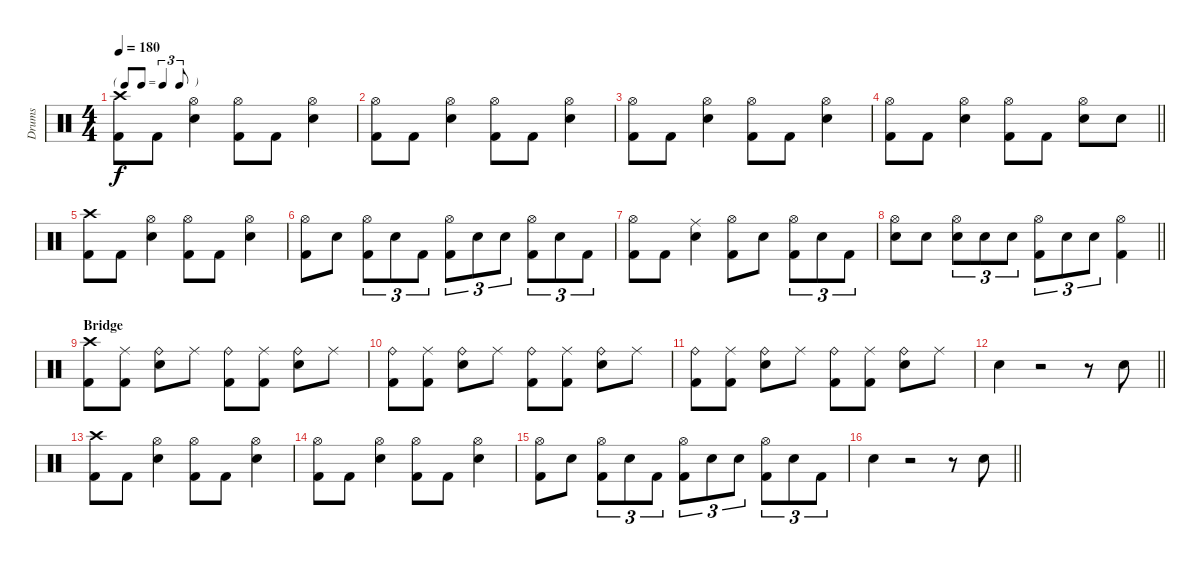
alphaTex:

\track ("Drums" "Drums") {instrument percussion}
\staff {score}
\articulation defaults
\ts (4 4)
\tf triplet8th
\tempo 180
\clef neutral
\ks c
("Crash high (hit)" "Kick (hit) 2").8{dy f} "Kick (hit) 2".8 ("Hi-Hat (open)" "Snare (hit) 2").4 ("Hi-Hat (open)" "Kick (hit) 2").8 "Kick (hit) 2".8 ("Hi-Hat (open)" "Snare (hit) 2").4 |
("Hi-Hat (open)" "Kick (hit) 2").8 "Kick (hit) 2".8 ("Hi-Hat (open)" "Snare (hit) 2").4 ("Hi-Hat (open)" "Kick (hit) 2").8 "Kick (hit) 2".8 ("Hi-Hat (open)" "Snare (hit) 2").4 |
("Hi-Hat (open)" "Kick (hit) 2").8 "Kick (hit) 2".8 ("Hi-Hat (open)" "Snare (hit) 2").4 ("Hi-Hat (open)" "Kick (hit) 2").8 "Kick (hit) 2".8 ("Hi-Hat (open)" "Snare (hit) 2").4 |
\barLineRight lightlight
("Hi-Hat (open)" "Kick (hit) 2").8 "Kick (hit) 2".8 ("Hi-Hat (open)" "Snare (hit) 2").4 ("Hi-Hat (open)" "Kick (hit) 2").8 "Kick (hit) 2".8 ("Hi-Hat (open)" "Snare (hit) 2").8 "Snare (hit) 2".8 |
("Crash high (hit)" "Kick (hit) 2").8 "Kick (hit) 2".8 ("Hi-Hat (open)" "Snare (hit) 2").4 ("Hi-Hat (open)" "Kick (hit) 2").8 "Kick (hit) 2".8 ("Hi-Hat (open)" "Snare (hit) 2").4 |
("Hi-Hat (open)" "Kick (hit) 2").8 "Snare (hit) 2".8 ("Hi-Hat (open)" "Kick (hit) 2").8{tu (3 2)} "Snare (hit) 2".8{tu (3 2)} "Kick (hit) 2".8{tu (3 2)} ("Hi-Hat (open)" "Kick (hit) 2").8{tu (3 2)} "Snare (hit) 2".8{tu (3 2)} "Snare (hit) 2".8{tu (3 2)} ("Hi-Hat (open)" "Kick (hit) 2").8{tu (3 2)} "Snare (hit) 2".8{tu (3 2)} "Kick (hit) 2".8{tu (3 2)} |
("Hi-Hat (open)" "Kick (hit) 2").8 "Kick (hit) 2".8 ("Ride (middle)" "Snare (hit) 2").4 ("Hi-Hat (open)" "Kick (hit) 2").8 "Snare (hit) 2".8 ("Hi-Hat (open)" "Kick (hit) 2").8{tu (3 2)} "Snare (hit) 2".8{tu (3 2)} "Kick (hit) 2".8{tu (3 2)} |
\barLineRight lightlight
("Hi-Hat (open)" "Snare (hit) 2").8 "Snare (hit) 2".8 ("Hi-Hat (open)" "Snare (hit) 2").8{tu (3 2)} "Snare (hit) 2".8{tu (3 2)} "Snare (hit) 2".8{tu (3 2)} ("Hi-Hat (open)" "Kick (hit) 2").8{tu (3 2)} "Snare (hit) 2".8{tu (3 2)} "Snare (hit) 2".8{tu (3 2)} ("Hi-Hat (open)" "Kick (hit) 2").4 |
\section ("" "Bridge")
("Crash high (hit)" "Kick (hit) 2").8 ("Ride (middle)" "Kick (hit) 2").8 ("Ride (bell)" "Snare (hit) 2").8 "Ride (middle)".8 ("Ride (bell)" "Kick (hit) 2").8 ("Ride (middle)" "Kick (hit) 2").8 ("Ride (bell)" "Snare (hit) 2").8 "Ride (middle)".8 |
("Ride (bell)" "Kick (hit) 2").8 ("Ride (middle)" "Kick (hit) 2").8 ("Ride (bell)" "Snare (hit) 2").8 "Ride (middle)".8 ("Ride (bell)" "Kick (hit) 2").8 ("Ride (middle)" "Kick (hit) 2").8 ("Ride (bell)" "Snare (hit) 2").8 "Ride (middle)".8 |
("Ride (bell)" "Kick (hit) 2").8 ("Ride (middle)" "Kick (hit) 2").8 ("Ride (bell)" "Snare (hit) 2").8 "Ride (middle)".8 ("Ride (bell)" "Kick (hit) 2").8 ("Ride (middle)" "Kick (hit) 2").8 ("Ride (bell)" "Snare (hit) 2").8 "Ride (middle)".8 |
\barLineRight lightlight "Snare (hit) 2".4
r.2 r.8 "Snare (hit) 2".8 |
("Crash high (hit)" "Kick (hit) 2").8 "Kick (hit) 2".8 ("Hi-Hat (open)" "Snare (hit) 2").4 ("Hi-Hat (open)" "Kick (hit) 2").8 "Kick (hit) 2".8 ("Hi-Hat (open)" "Snare (hit) 2").4 |
("Hi-Hat (open)" "Kick (hit) 2").8 "Kick (hit) 2".8 ("Hi-Hat (open)" "Snare (hit) 2").4 ("Hi-Hat (open)" "Kick (hit) 2").8 "Kick (hit) 2".8 ("Hi-Hat (open)" "Snare (hit) 2").4 |
("Hi-Hat (open)" "Kick (hit) 2").8 "Snare (hit) 2".8 ("Hi-Hat (open)" "Kick (hit) 2").8{tu (3 2)} "Snare (hit) 2".8{tu (3 2)} "Kick (hit) 2".8{tu (3 2)} ("Hi-Hat (open)" "Kick (hit) 2").8{tu (3 2)} "Snare (hit) 2".8{tu (3 2)} "Snare (hit) 2".8{tu (3 2)} ("Hi-Hat (open)" "Kick (hit) 2").8{tu (3 2)} "Snare (hit) 2".8{tu (3 2)} "Kick (hit) 2".8{tu (3 2)} |
\barLineRight lightlight "Snare (hit) 2".4
r.2 r.8 "Snare (hit) 2".8
